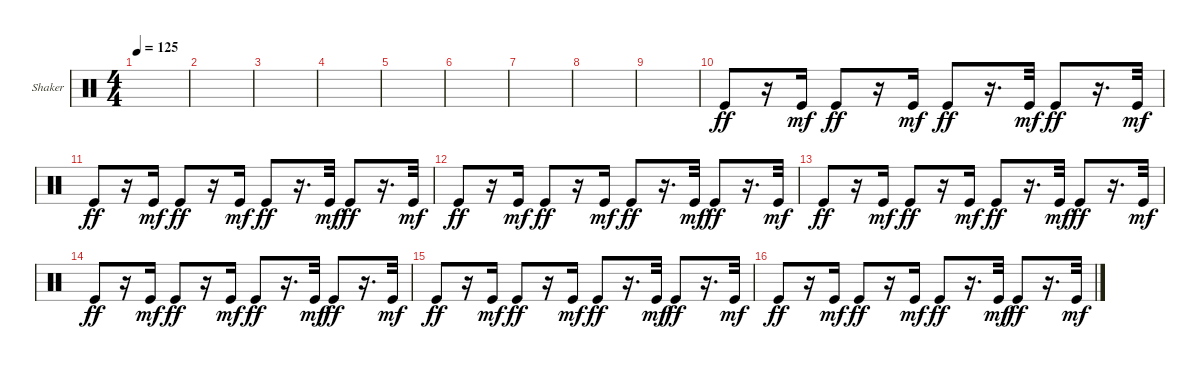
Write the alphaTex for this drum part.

\bracketExtendMode groupsimilarinstruments
\firstSystemTrackNameOrientation horizontal
\otherSystemsTrackNameOrientation horizontal
\track ("Shaker" "Shaker") {instrument percussion}
\staff {score}
\articulation defaults
\ts (4 4)
\tempo 125
\clef neutral
\ks c
|
|
|
|
|
|
|
|
|
"Kick (hit)".8{dy ff} r.16 "Kick (hit)".16{dy mf} "Kick (hit)".8{dy ff} r.16 "Kick (hit)".16{dy mf} "Kick (hit)".8{dy ff} r.16{d} "Kick (hit)".32{dy mf} "Kick (hit)".8{dy ff} r.16{d} "Kick (hit)".32{dy mf} |
"Kick (hit)".8{dy ff} r.16 "Kick (hit)".16{dy mf} "Kick (hit)".8{dy ff} r.16 "Kick (hit)".16{dy mf} "Kick (hit)".8{dy ff} r.16{d} "Kick (hit)".32{dy mf} "Kick (hit)".8{dy ff} r.16{d} "Kick (hit)".32{dy mf} |
"Kick (hit)".8{dy ff} r.16 "Kick (hit)".16{dy mf} "Kick (hit)".8{dy ff} r.16 "Kick (hit)".16{dy mf} "Kick (hit)".8{dy ff} r.16{d} "Kick (hit)".32{dy mf} "Kick (hit)".8{dy ff} r.16{d} "Kick (hit)".32{dy mf} |
"Kick (hit)".8{dy ff} r.16 "Kick (hit)".16{dy mf} "Kick (hit)".8{dy ff} r.16 "Kick (hit)".16{dy mf} "Kick (hit)".8{dy ff} r.16{d} "Kick (hit)".32{dy mf} "Kick (hit)".8{dy ff} r.16{d} "Kick (hit)".32{dy mf} |
"Kick (hit)".8{dy ff} r.16 "Kick (hit)".16{dy mf} "Kick (hit)".8{dy ff} r.16 "Kick (hit)".16{dy mf} "Kick (hit)".8{dy ff} r.16{d} "Kick (hit)".32{dy mf} "Kick (hit)".8{dy ff} r.16{d} "Kick (hit)".32{dy mf} |
"Kick (hit)".8{dy ff} r.16 "Kick (hit)".16{dy mf} "Kick (hit)".8{dy ff} r.16 "Kick (hit)".16{dy mf} "Kick (hit)".8{dy ff} r.16{d} "Kick (hit)".32{dy mf} "Kick (hit)".8{dy ff} r.16{d} "Kick (hit)".32{dy mf} |
"Kick (hit)".8{dy ff} r.16 "Kick (hit)".16{dy mf} "Kick (hit)".8{dy ff} r.16 "Kick (hit)".16{dy mf} "Kick (hit)".8{dy ff} r.16{d} "Kick (hit)".32{dy mf} "Kick (hit)".8{dy ff} r.16{d} "Kick (hit)".32{dy mf}
